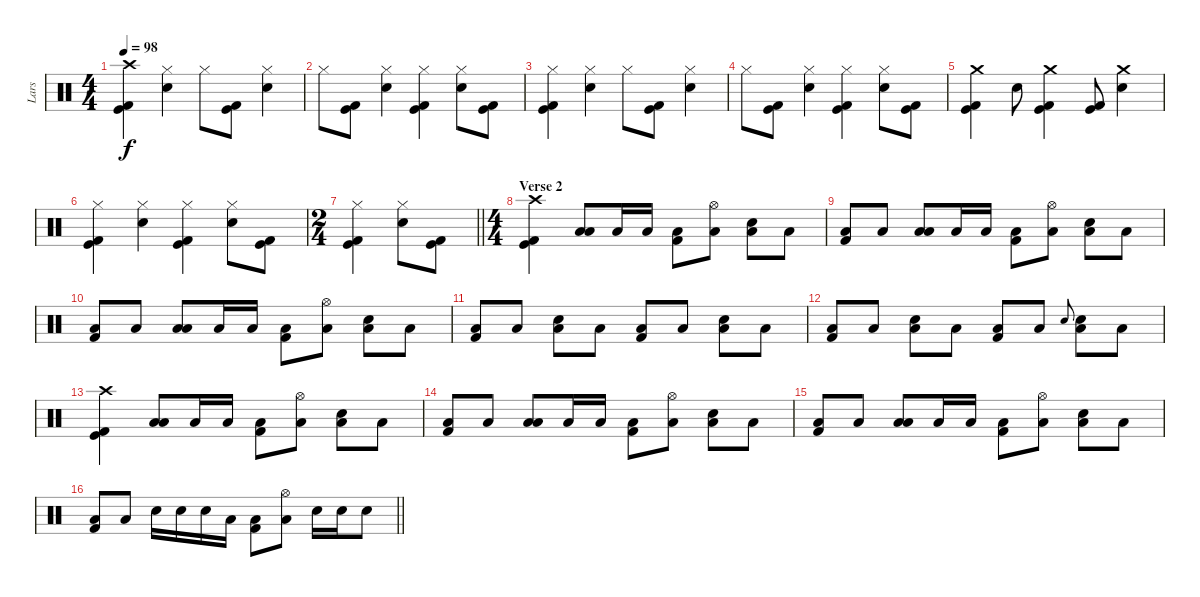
\track ("Lars" "Lars") {instrument percussion}
\staff {score}
\articulation defaults
\ts (4 4)
\section ("" "")
\tempo 98
\clef neutral
\ks c
("Crash high (hit)" "Kick (hit)" "Kick (hit) 2").4{dy f} ("Hi-Hat (closed)" "Electric Snare (hit)").4 "Hi-Hat (closed)".8 ("Kick (hit)" "Kick (hit) 2").8 ("Hi-Hat (closed)" "Electric Snare (hit)").4 |
"Hi-Hat (closed)".8 ("Kick (hit)" "Kick (hit) 2").8 ("Hi-Hat (closed)" "Electric Snare (hit)").4 ("Hi-Hat (closed)" "Kick (hit)" "Kick (hit) 2").4 ("Hi-Hat (closed)" "Electric Snare (hit)").8 ("Kick (hit)" "Kick (hit) 2").8 |
("Hi-Hat (closed)" "Kick (hit)" "Kick (hit) 2").4 ("Hi-Hat (closed)" "Electric Snare (hit)").4 "Hi-Hat (closed)".8 ("Kick (hit)" "Kick (hit) 2").8 ("Hi-Hat (closed)" "Electric Snare (hit)").4 |
"Hi-Hat (closed)".8 ("Kick (hit)" "Kick (hit) 2").8 ("Hi-Hat (closed)" "Electric Snare (hit)").4 ("Hi-Hat (closed)" "Kick (hit)" "Kick (hit) 2").4 ("Hi-Hat (closed)" "Electric Snare (hit)").8 ("Kick (hit)" "Kick (hit) 2").8 |
("Crash medium (hit)" "Kick (hit)" "Kick (hit) 2").4 "Electric Snare (hit)".8 ("Crash medium (hit)" "Kick (hit)" "Kick (hit) 2").4 ("Kick (hit)" "Kick (hit) 2").8 ("Crash medium (hit)" "Electric Snare (hit)").4 |
("Hi-Hat (closed)" "Kick (hit)" "Kick (hit) 2").4 ("Hi-Hat (closed)" "Electric Snare (hit)").4 ("Hi-Hat (closed)" "Kick (hit)" "Kick (hit) 2").4 ("Hi-Hat (closed)" "Electric Snare (hit)").8 ("Kick (hit)" "Kick (hit) 2").8 |
\ts (2 4)
\barLineRight lightlight
("Hi-Hat (closed)" "Kick (hit)" "Kick (hit) 2").4 ("Hi-Hat (closed)" "Electric Snare (hit)").8 ("Kick (hit)" "Kick (hit) 2").8 |
\ts (4 4)
\section ("" "Verse 2")
("Crash high (hit)" "Kick (hit)" "Kick (hit) 2").4 ("Low Tom (hit)" "Low Floor Tom (hit)").8 "Low Tom (hit)".16 "Low Floor Tom (hit)".16 ("Low Floor Tom (hit)" "Kick (hit) 2").8 ("Hi-Hat (open)" "Low Floor Tom (hit)").8 ("Electric Snare (hit)" "Low Floor Tom (hit)").8 "Low Floor Tom (hit)".8 |
("Low Floor Tom (hit)" "Kick (hit) 2").8 "Low Floor Tom (hit)".8 ("Low Tom (hit)" "Low Floor Tom (hit)").8 "Low Tom (hit)".16 "Low Floor Tom (hit)".16 ("Low Floor Tom (hit)" "Kick (hit) 2").8 ("Hi-Hat (open)" "Low Floor Tom (hit)").8 ("Electric Snare (hit)" "Low Floor Tom (hit)").8 "Low Floor Tom (hit)".8 |
("Low Floor Tom (hit)" "Kick (hit) 2").8 "Low Floor Tom (hit)".8 ("Low Tom (hit)" "Low Floor Tom (hit)").8 "Low Tom (hit)".16 "Low Floor Tom (hit)".16 ("Low Floor Tom (hit)" "Kick (hit) 2").8 ("Hi-Hat (open)" "Low Floor Tom (hit)").8 ("Electric Snare (hit)" "Low Floor Tom (hit)").8 "Low Floor Tom (hit)".8 |
("Low Floor Tom (hit)" "Kick (hit) 2").8 "Low Floor Tom (hit)".8 ("Electric Snare (hit)" "Low Floor Tom (hit)").8 "Low Floor Tom (hit)".8 ("Low Floor Tom (hit)" "Kick (hit) 2").8 "Low Floor Tom (hit)".8 ("Electric Snare (hit)" "Low Floor Tom (hit)").8 "Low Floor Tom (hit)".8 |
("Low Floor Tom (hit)" "Kick (hit) 2").8 "Low Floor Tom (hit)".8 ("Electric Snare (hit)" "Low Floor Tom (hit)").8 "Low Floor Tom (hit)".8 ("Low Floor Tom (hit)" "Kick (hit) 2").8 "Low Floor Tom (hit)".8 "Electric Snare (hit)".8{gr onbeat} ("Electric Snare (hit)" "Low Floor Tom (hit)").8 "Low Floor Tom (hit)".8 |
("Crash high (hit)" "Kick (hit)" "Kick (hit) 2").4 ("Low Tom (hit)" "Low Floor Tom (hit)").8 "Low Tom (hit)".16 "Low Floor Tom (hit)".16 ("Low Floor Tom (hit)" "Kick (hit) 2").8 ("Hi-Hat (open)" "Low Floor Tom (hit)").8 ("Electric Snare (hit)" "Low Floor Tom (hit)").8 "Low Floor Tom (hit)".8 |
("Low Floor Tom (hit)" "Kick (hit) 2").8 "Low Floor Tom (hit)".8 ("Low Tom (hit)" "Low Floor Tom (hit)").8 "Low Tom (hit)".16 "Low Floor Tom (hit)".16 ("Low Floor Tom (hit)" "Kick (hit) 2").8 ("Hi-Hat (open)" "Low Floor Tom (hit)").8 ("Electric Snare (hit)" "Low Floor Tom (hit)").8 "Low Floor Tom (hit)".8 |
("Low Floor Tom (hit)" "Kick (hit) 2").8 "Low Floor Tom (hit)".8 ("Low Tom (hit)" "Low Floor Tom (hit)").8 "Low Tom (hit)".16 "Low Floor Tom (hit)".16 ("Low Floor Tom (hit)" "Kick (hit) 2").8 ("Hi-Hat (open)" "Low Floor Tom (hit)").8 ("Electric Snare (hit)" "Low Floor Tom (hit)").8 "Low Floor Tom (hit)".8 |
\barLineRight lightlight
("Low Floor Tom (hit)" "Kick (hit) 2").8 "Low Floor Tom (hit)".8 "Electric Snare (hit)".16 "Electric Snare (hit)".16 "Electric Snare (hit)".16 "Low Floor Tom (hit)".16 ("Low Floor Tom (hit)" "Kick (hit) 2").8 ("Hi-Hat (open)" "Low Floor Tom (hit)").8 "Electric Snare (hit)".16 "Electric Snare (hit)".16 "Electric Snare (hit)".8
